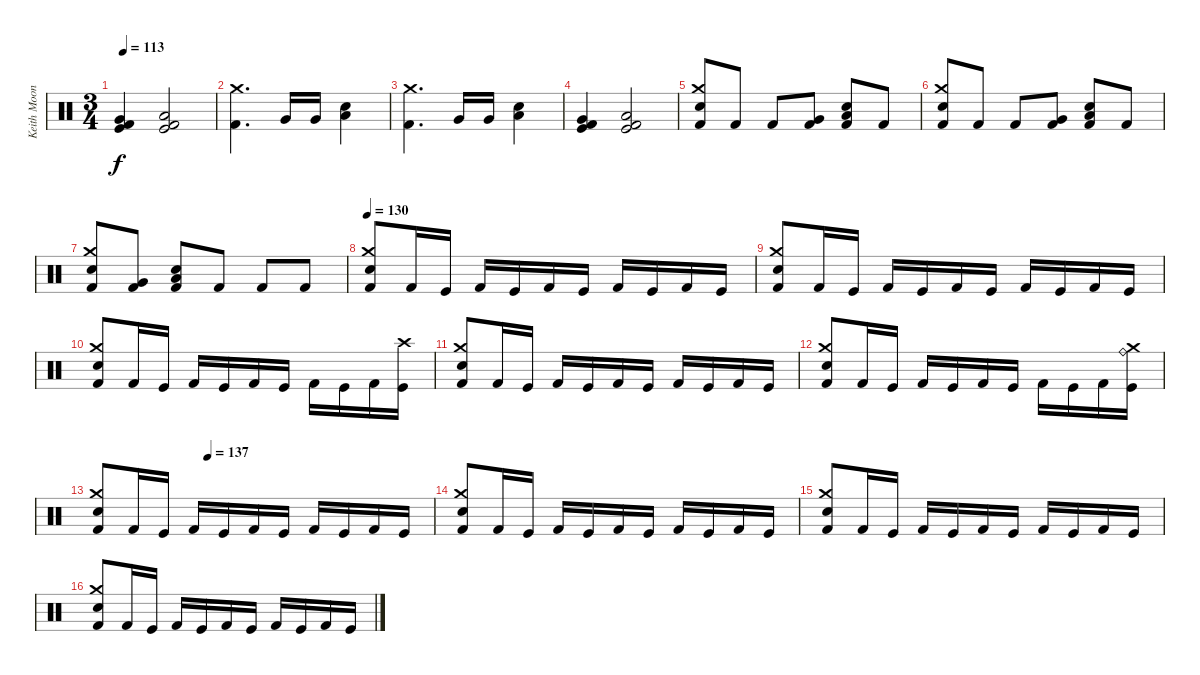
\track ("Keith Moon" "Keith Moon") {instrument percussion}
\staff {score}
\articulation defaults
\ts (3 4)
\tempo 113
\clef neutral
\ks c
("Kick (hit) 2" "Kick (hit)" "Very Low Tom (hit)").4{dy f} ("Kick (hit) 2" "Kick (hit)" "Low Tom (hit)").2 |
("Kick (hit) 2" "Crash medium (hit)").4{d} "Very Low Tom (hit)".16 "Very Low Tom (hit)".16 ("Low Tom (hit)" "Snare (hit) 2").4 |
("Kick (hit) 2" "Crash medium (hit)").4{d} "Very Low Tom (hit)".16 "Very Low Tom (hit)".16 ("Low Tom (hit)" "Snare (hit) 2").4 |
("Kick (hit) 2" "Kick (hit)" "Very Low Tom (hit)").4 ("Kick (hit) 2" "Kick (hit)" "Low Tom (hit)").2 |
("Kick (hit) 2" "Snare (hit) 2" "Crash medium (hit)").8 "Kick (hit) 2".8 "Kick (hit) 2".8 ("Kick (hit) 2" "Very Low Tom (hit)").8 ("Kick (hit) 2" "Low Tom (hit)" "Snare (hit) 2").8 "Kick (hit) 2".8 |
("Kick (hit) 2" "Snare (hit) 2" "Crash medium (hit)").8 "Kick (hit) 2".8 "Kick (hit) 2".8 ("Kick (hit) 2" "Very Low Tom (hit)").8 ("Kick (hit) 2" "Low Tom (hit)" "Snare (hit) 2").8 "Kick (hit) 2".8 |
("Kick (hit) 2" "Snare (hit) 2" "Crash medium (hit)").8 ("Kick (hit) 2" "Very Low Tom (hit)").8 ("Kick (hit) 2" "Low Tom (hit)" "Snare (hit) 2").8 "Kick (hit) 2".8 "Kick (hit) 2".8 "Kick (hit) 2".8 |
\tempo 130
("Kick (hit) 2" "Snare (hit) 2" "Crash medium (hit)").8 "Kick (hit) 2".16 "Kick (hit)".16 "Kick (hit) 2".16 "Kick (hit)".16 "Kick (hit) 2".16 "Kick (hit)".16 "Kick (hit) 2".16 "Kick (hit)".16 "Kick (hit) 2".16 "Kick (hit)".16 |
("Kick (hit) 2" "Snare (hit) 2" "Crash medium (hit)").8 "Kick (hit) 2".16 "Kick (hit)".16 "Kick (hit) 2".16 "Kick (hit)".16 "Kick (hit) 2".16 "Kick (hit)".16 "Kick (hit) 2".16 "Kick (hit)".16 "Kick (hit) 2".16 "Kick (hit)".16 |
("Kick (hit) 2" "Snare (hit) 2" "Crash medium (hit)").8 "Kick (hit) 2".16 "Kick (hit)".16 "Kick (hit) 2".16 "Kick (hit)".16 "Kick (hit) 2".16 "Kick (hit)".16 "Kick (hit) 2".16 "Kick (hit)".16 "Kick (hit) 2".16 ("Kick (hit)" "Crash high (hit)").16 |
("Kick (hit) 2" "Snare (hit) 2" "Crash medium (hit)").8 "Kick (hit) 2".16 "Kick (hit)".16 "Kick (hit) 2".16 "Kick (hit)".16 "Kick (hit) 2".16 "Kick (hit)".16 "Kick (hit) 2".16 "Kick (hit)".16 "Kick (hit) 2".16 "Kick (hit)".16 |
("Kick (hit) 2" "Snare (hit) 2" "Crash medium (hit)").8 "Kick (hit) 2".16 "Kick (hit)".16 "Kick (hit) 2".16 "Kick (hit)".16 "Kick (hit) 2".16 "Kick (hit)".16 "Kick (hit) 2".16 "Kick (hit)".16 "Kick (hit) 2".16 ("Kick (hit)" "Ride (bell)" "Crash medium (hit)").16 |
\tempo (137 0.3333333333333333)
("Kick (hit) 2" "Snare (hit) 2" "Crash medium (hit)").8 "Kick (hit) 2".16 "Kick (hit)".16 "Kick (hit) 2".16 "Kick (hit)".16 "Kick (hit) 2".16 "Kick (hit)".16 "Kick (hit) 2".16 "Kick (hit)".16 "Kick (hit) 2".16 "Kick (hit)".16 |
("Kick (hit) 2" "Snare (hit) 2" "Crash medium (hit)").8 "Kick (hit) 2".16 "Kick (hit)".16 "Kick (hit) 2".16 "Kick (hit)".16 "Kick (hit) 2".16 "Kick (hit)".16 "Kick (hit) 2".16 "Kick (hit)".16 "Kick (hit) 2".16 "Kick (hit)".16 |
("Kick (hit) 2" "Snare (hit) 2" "Crash medium (hit)").8 "Kick (hit) 2".16 "Kick (hit)".16 "Kick (hit) 2".16 "Kick (hit)".16 "Kick (hit) 2".16 "Kick (hit)".16 "Kick (hit) 2".16 "Kick (hit)".16 "Kick (hit) 2".16 "Kick (hit)".16 |
("Kick (hit) 2" "Snare (hit) 2" "Crash medium (hit)").8 "Kick (hit) 2".16 "Kick (hit)".16 "Kick (hit) 2".16 "Kick (hit)".16 "Kick (hit) 2".16 "Kick (hit)".16 "Kick (hit) 2".16 "Kick (hit)".16 "Kick (hit) 2".16 "Kick (hit)".16
